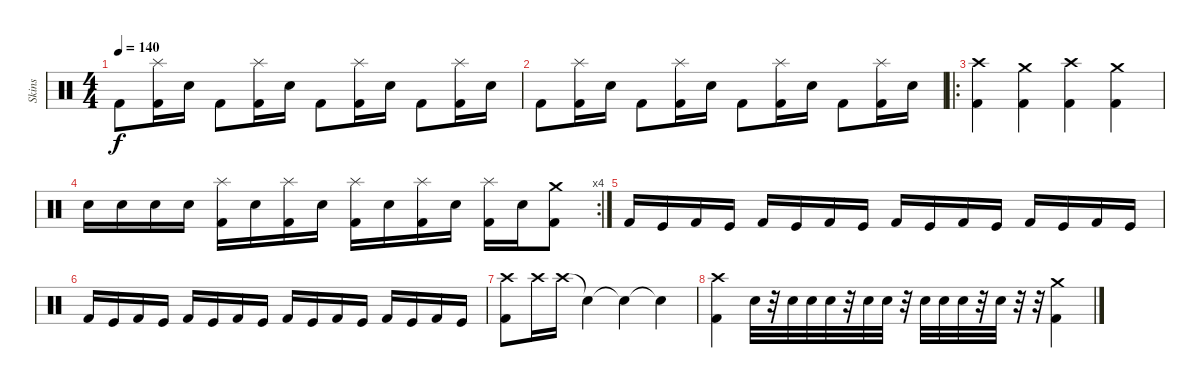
\track ("Skins" "Skins") {instrument percussion}
\staff {score}
\articulation defaults
\ts (4 4)
\tempo 140
\clef neutral
\ks c "Kick (hit) 2".8{dy f}
("Splash (hit)" "Kick (hit) 2").16 "Electric Snare (hit)".16 "Kick (hit) 2".8 ("Splash (hit)" "Kick (hit) 2").16 "Electric Snare (hit)".16 "Kick (hit) 2".8 ("Splash (hit)" "Kick (hit) 2").16 "Electric Snare (hit)".16 "Kick (hit) 2".8 ("Splash (hit)" "Kick (hit) 2").16 "Electric Snare (hit)".16 |
"Kick (hit) 2".8 ("Splash (hit)" "Kick (hit) 2").16 "Electric Snare (hit)".16 "Kick (hit) 2".8 ("Splash (hit)" "Kick (hit) 2").16 "Electric Snare (hit)".16 "Kick (hit) 2".8 ("Splash (hit)" "Kick (hit) 2").16 "Electric Snare (hit)".16 "Kick (hit) 2".8 ("Splash (hit)" "Kick (hit) 2").16 "Electric Snare (hit)".16 |
\ro
("Crash high (hit)" "Kick (hit) 2").4 ("Crash medium (hit)" "Kick (hit) 2").4 ("Crash high (hit)" "Kick (hit) 2").4 ("Crash medium (hit)" "Kick (hit) 2").4 |
\rc 4 "Electric Snare (hit)".16 "Electric Snare (hit)".16 "Electric Snare (hit)".16 "Electric Snare (hit)".16
("Splash (hit)" "Kick (hit) 2").16 "Electric Snare (hit)".16 ("Splash (hit)" "Kick (hit) 2").16 "Electric Snare (hit)".16 ("Splash (hit)" "Kick (hit) 2").16 "Electric Snare (hit)".16 ("Splash (hit)" "Kick (hit) 2").16 "Electric Snare (hit)".16 ("Splash (hit)" "Kick (hit) 2").16 "Electric Snare (hit)".16 ("Crash medium (hit)" "Kick (hit) 2").8 |
"Kick (hit) 2".16 "Kick (hit)".16 "Kick (hit) 2".16 "Kick (hit)".16 "Kick (hit) 2".16 "Kick (hit)".16 "Kick (hit) 2".16 "Kick (hit)".16 "Kick (hit) 2".16 "Kick (hit)".16 "Kick (hit) 2".16 "Kick (hit)".16 "Kick (hit) 2".16 "Kick (hit)".16 "Kick (hit) 2".16 "Kick (hit)".16 |
"Kick (hit) 2".16 "Kick (hit)".16 "Kick (hit) 2".16 "Kick (hit)".16 "Kick (hit) 2".16 "Kick (hit)".16 "Kick (hit) 2".16 "Kick (hit)".16 "Kick (hit) 2".16 "Kick (hit)".16 "Kick (hit) 2".16 "Kick (hit)".16 "Kick (hit) 2".16 "Kick (hit)".16 "Kick (hit) 2".16 "Kick (hit)".16 |
("Crash high (hit)" "Kick (hit) 2").8 "Crash high (hit)".16 "Crash high (hit)".16 "Snare (hit)"{t}.4 "Snare (hit)"{t}.4 "Snare (hit)"{t}.4 |
("Crash high (hit)" "Kick (hit) 2").4 "Electric Snare (hit)".32 r.32 "Electric Snare (hit)".32 "Electric Snare (hit)".32 "Electric Snare (hit)".32 r.32 "Electric Snare (hit)".32 "Electric Snare (hit)".32 r.32 "Electric Snare (hit)".32 "Electric Snare (hit)".32 "Electric Snare (hit)".32 r.32 "Electric Snare (hit)".32 r.32 r.32 ("Crash medium (hit)" "Kick (hit) 2").4
